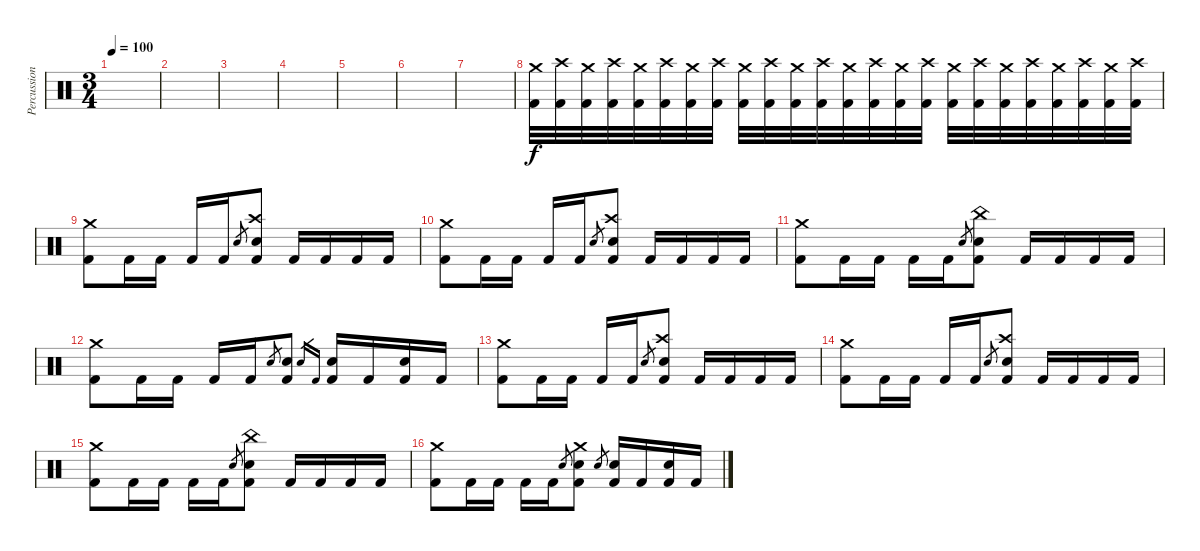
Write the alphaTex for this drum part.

\track ("Percussion" "Percussion") {instrument percussion}
\staff {score}
\articulation defaults
\ts (3 4)
\tempo 100
\clef neutral
\ks c
|
|
|
|
|
|
|
("Crash medium (hit)" "Kick (hit) 2").32{volume 14} ("Crash high (hit)" "Kick (hit) 2").32 ("Crash medium (hit)" "Kick (hit) 2").32 ("Crash high (hit)" "Kick (hit) 2").32 ("Crash medium (hit)" "Kick (hit) 2").32 ("Crash high (hit)" "Kick (hit) 2").32 ("Crash medium (hit)" "Kick (hit) 2").32 ("Crash high (hit)" "Kick (hit) 2").32 ("Crash medium (hit)" "Kick (hit) 2").32 ("Crash high (hit)" "Kick (hit) 2").32 ("Crash medium (hit)" "Kick (hit) 2").32 ("Crash high (hit)" "Kick (hit) 2").32 ("Crash medium (hit)" "Kick (hit) 2").32 ("Crash high (hit)" "Kick (hit) 2").32 ("Crash medium (hit)" "Kick (hit) 2").32 ("Crash high (hit)" "Kick (hit) 2").32 ("Crash medium (hit)" "Kick (hit) 2").32 ("Crash high (hit)" "Kick (hit) 2").32 ("Crash medium (hit)" "Kick (hit) 2").32 ("Crash high (hit)" "Kick (hit) 2").32 ("Crash medium (hit)" "Kick (hit) 2").32 ("Crash high (hit)" "Kick (hit) 2").32 ("Crash medium (hit)" "Kick (hit) 2").32 ("Crash high (hit)" "Kick (hit) 2").32 |
("Crash medium (hit)" "Kick (hit) 2").8 "Kick (hit) 2".16 "Kick (hit) 2".16 "Kick (hit) 2".16 "Kick (hit) 2".16 "Electric Snare (hit)".8{gr} ("Crash high (hit)" "Electric Snare (hit)" "Kick (hit) 2").8 "Kick (hit) 2".16 "Kick (hit) 2".16 "Kick (hit) 2".16 "Kick (hit) 2".16 |
("Crash medium (hit)" "Kick (hit) 2").8 "Kick (hit) 2".16 "Kick (hit) 2".16 "Kick (hit) 2".16 "Kick (hit) 2".16 "Electric Snare (hit)".8{gr} ("Crash high (hit)" "Electric Snare (hit)" "Kick (hit) 2").8 "Kick (hit) 2".16 "Kick (hit) 2".16 "Kick (hit) 2".16 "Kick (hit) 2".16 |
("Crash medium (hit)" "Kick (hit) 2").8 "Kick (hit) 2".16 "Kick (hit) 2".16 "Kick (hit) 2".16 "Kick (hit) 2".16 "Electric Snare (hit)".8{gr} ("China (hit)" "Electric Snare (hit)" "Kick (hit) 2").8 "Kick (hit) 2".16 "Kick (hit) 2".16 "Kick (hit) 2".16 "Kick (hit) 2".16 |
("Crash medium (hit)" "Kick (hit) 2").8 "Kick (hit) 2".16 "Kick (hit) 2".16 "Kick (hit) 2".16 "Kick (hit) 2".16 "Electric Snare (hit)".8{gr} ("Electric Snare (hit)" "Kick (hit) 2").8 "Electric Snare (hit)".16{gr} "Kick (hit) 2".16{gr} ("Electric Snare (hit)" "Kick (hit) 2").16 "Kick (hit) 2".16 ("Electric Snare (hit)" "Kick (hit) 2").16 "Kick (hit) 2".16 |
("Crash medium (hit)" "Kick (hit) 2").8 "Kick (hit) 2".16 "Kick (hit) 2".16 "Kick (hit) 2".16 "Kick (hit) 2".16 "Electric Snare (hit)".8{gr} ("Crash high (hit)" "Electric Snare (hit)" "Kick (hit) 2").8 "Kick (hit) 2".16 "Kick (hit) 2".16 "Kick (hit) 2".16 "Kick (hit) 2".16 |
("Crash medium (hit)" "Kick (hit) 2").8 "Kick (hit) 2".16 "Kick (hit) 2".16 "Kick (hit) 2".16 "Kick (hit) 2".16 "Electric Snare (hit)".8{gr} ("Crash high (hit)" "Electric Snare (hit)" "Kick (hit) 2").8 "Kick (hit) 2".16 "Kick (hit) 2".16 "Kick (hit) 2".16 "Kick (hit) 2".16 |
("Crash medium (hit)" "Kick (hit) 2").8 "Kick (hit) 2".16 "Kick (hit) 2".16 "Kick (hit) 2".16 "Kick (hit) 2".16 "Electric Snare (hit)".8{gr} ("China (hit)" "Electric Snare (hit)" "Kick (hit) 2").8 "Kick (hit) 2".16 "Kick (hit) 2".16 "Kick (hit) 2".16 "Kick (hit) 2".16 |
("Crash medium (hit)" "Kick (hit) 2").8 "Kick (hit) 2".16 "Kick (hit) 2".16 "Kick (hit) 2".16 "Kick (hit) 2".16 "Electric Snare (hit)".8{gr} ("Crash medium (hit)" "Electric Snare (hit)" "Kick (hit) 2").8 "Electric Snare (hit)".8{gr} ("Electric Snare (hit)" "Kick (hit) 2").16 "Kick (hit) 2".16 ("Electric Snare (hit)" "Kick (hit) 2").16 "Kick (hit) 2".16
